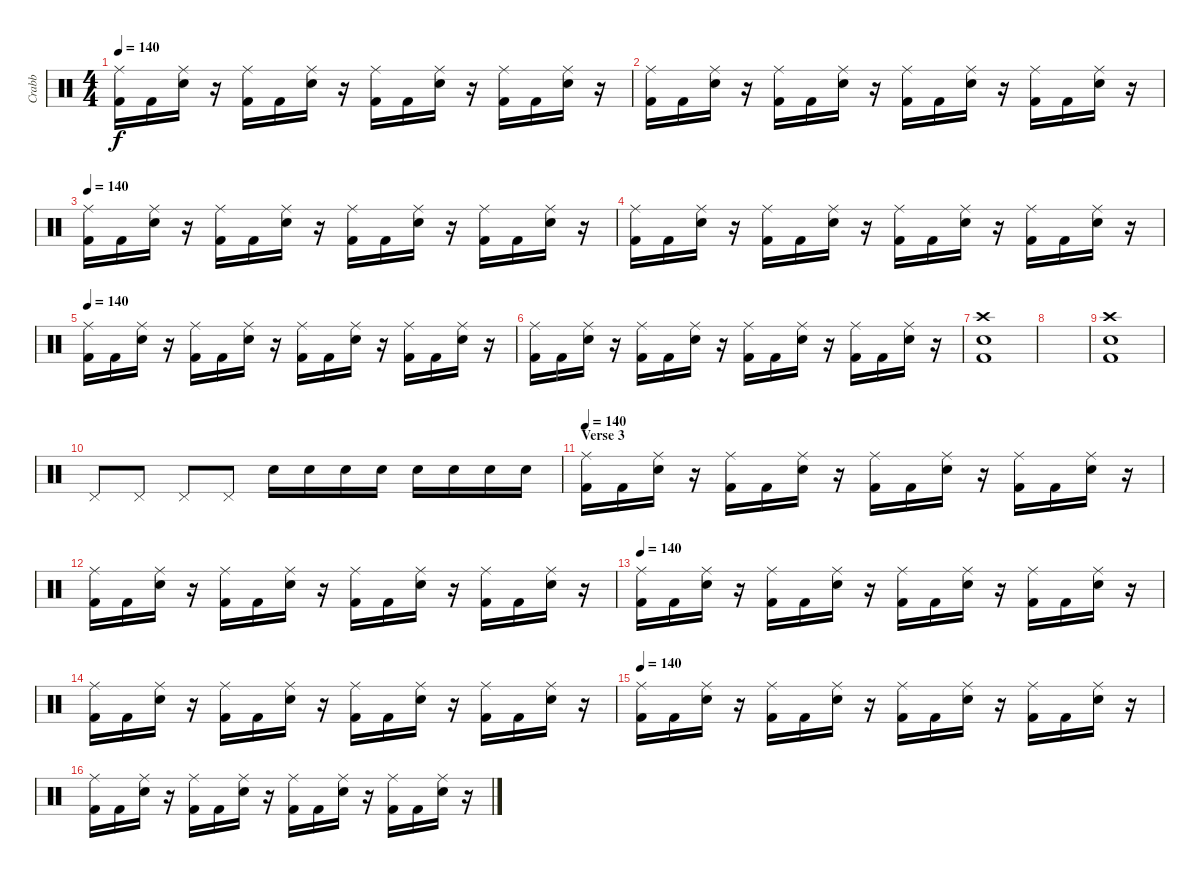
\track ("Crabb" "Crabb") {instrument percussion}
\staff {score}
\articulation defaults
\ts (4 4)
\tempo 140
\clef neutral
\ks c
("Ride (middle)" "Kick (hit) 2").16{dy f} "Kick (hit) 2".16 ("Ride (middle)" "Electric Snare (hit)").16 r.16 ("Ride (middle)" "Kick (hit) 2").16 "Kick (hit) 2".16 ("Ride (middle)" "Electric Snare (hit)").16 r.16 ("Ride (middle)" "Kick (hit) 2").16 "Kick (hit) 2".16 ("Ride (middle)" "Electric Snare (hit)").16 r.16 ("Ride (middle)" "Kick (hit) 2").16 "Kick (hit) 2".16 ("Ride (middle)" "Electric Snare (hit)").16 r.16 |
("Ride (middle)" "Kick (hit) 2").16 "Kick (hit) 2".16 ("Ride (middle)" "Electric Snare (hit)").16 r.16 ("Ride (middle)" "Kick (hit) 2").16 "Kick (hit) 2".16 ("Ride (middle)" "Electric Snare (hit)").16 r.16 ("Ride (middle)" "Kick (hit) 2").16 "Kick (hit) 2".16 ("Ride (middle)" "Electric Snare (hit)").16 r.16 ("Ride (middle)" "Kick (hit) 2").16 "Kick (hit) 2".16 ("Ride (middle)" "Electric Snare (hit)").16 r.16 |
\tempo 140
("Ride (middle)" "Kick (hit) 2").16 "Kick (hit) 2".16 ("Ride (middle)" "Electric Snare (hit)").16 r.16 ("Ride (middle)" "Kick (hit) 2").16 "Kick (hit) 2".16 ("Ride (middle)" "Electric Snare (hit)").16 r.16 ("Ride (middle)" "Kick (hit) 2").16 "Kick (hit) 2".16 ("Ride (middle)" "Electric Snare (hit)").16 r.16 ("Ride (middle)" "Kick (hit) 2").16 "Kick (hit) 2".16 ("Ride (middle)" "Electric Snare (hit)").16 r.16 |
("Ride (middle)" "Kick (hit) 2").16 "Kick (hit) 2".16 ("Ride (middle)" "Electric Snare (hit)").16 r.16 ("Ride (middle)" "Kick (hit) 2").16 "Kick (hit) 2".16 ("Ride (middle)" "Electric Snare (hit)").16 r.16 ("Ride (middle)" "Kick (hit) 2").16 "Kick (hit) 2".16 ("Ride (middle)" "Electric Snare (hit)").16 r.16 ("Ride (middle)" "Kick (hit) 2").16 "Kick (hit) 2".16 ("Ride (middle)" "Electric Snare (hit)").16 r.16 |
\tempo 140
("Ride (middle)" "Kick (hit) 2").16 "Kick (hit) 2".16 ("Ride (middle)" "Electric Snare (hit)").16 r.16 ("Ride (middle)" "Kick (hit) 2").16 "Kick (hit) 2".16 ("Ride (middle)" "Electric Snare (hit)").16 r.16 ("Ride (middle)" "Kick (hit) 2").16 "Kick (hit) 2".16 ("Ride (middle)" "Electric Snare (hit)").16 r.16 ("Ride (middle)" "Kick (hit) 2").16 "Kick (hit) 2".16 ("Ride (middle)" "Electric Snare (hit)").16 r.16 |
("Ride (middle)" "Kick (hit) 2").16 "Kick (hit) 2".16 ("Ride (middle)" "Electric Snare (hit)").16 r.16 ("Ride (middle)" "Kick (hit) 2").16 "Kick (hit) 2".16 ("Ride (middle)" "Electric Snare (hit)").16 r.16 ("Ride (middle)" "Kick (hit) 2").16 "Kick (hit) 2".16 ("Ride (middle)" "Electric Snare (hit)").16 r.16 ("Ride (middle)" "Kick (hit) 2").16 "Kick (hit) 2".16 ("Ride (middle)" "Electric Snare (hit)").16 r.16 |
("Crash high (hit)" "Electric Snare (hit)" "Kick (hit) 2").1 |
|
("Crash high (hit)" "Electric Snare (hit)" "Kick (hit) 2").1 |
"Pedal Hi-Hat (hit)".8 "Pedal Hi-Hat (hit)".8 "Pedal Hi-Hat (hit)".8 "Pedal Hi-Hat (hit)".8 "Electric Snare (hit)".16 "Electric Snare (hit)".16 "Electric Snare (hit)".16 "Electric Snare (hit)".16 "Electric Snare (hit)".16 "Electric Snare (hit)".16 "Electric Snare (hit)".16 "Electric Snare (hit)".16 |
\section ("" "Verse 3")
\tempo 140
("Ride (middle)" "Kick (hit) 2").16 "Kick (hit) 2".16 ("Ride (middle)" "Electric Snare (hit)").16 r.16 ("Ride (middle)" "Kick (hit) 2").16 "Kick (hit) 2".16 ("Ride (middle)" "Electric Snare (hit)").16 r.16 ("Ride (middle)" "Kick (hit) 2").16 "Kick (hit) 2".16 ("Ride (middle)" "Electric Snare (hit)").16 r.16 ("Ride (middle)" "Kick (hit) 2").16 "Kick (hit) 2".16 ("Ride (middle)" "Electric Snare (hit)").16 r.16 |
("Ride (middle)" "Kick (hit) 2").16 "Kick (hit) 2".16 ("Ride (middle)" "Electric Snare (hit)").16 r.16 ("Ride (middle)" "Kick (hit) 2").16 "Kick (hit) 2".16 ("Ride (middle)" "Electric Snare (hit)").16 r.16 ("Ride (middle)" "Kick (hit) 2").16 "Kick (hit) 2".16 ("Ride (middle)" "Electric Snare (hit)").16 r.16 ("Ride (middle)" "Kick (hit) 2").16 "Kick (hit) 2".16 ("Ride (middle)" "Electric Snare (hit)").16 r.16 |
\tempo 140
("Ride (middle)" "Kick (hit) 2").16 "Kick (hit) 2".16 ("Ride (middle)" "Electric Snare (hit)").16 r.16 ("Ride (middle)" "Kick (hit) 2").16 "Kick (hit) 2".16 ("Ride (middle)" "Electric Snare (hit)").16 r.16 ("Ride (middle)" "Kick (hit) 2").16 "Kick (hit) 2".16 ("Ride (middle)" "Electric Snare (hit)").16 r.16 ("Ride (middle)" "Kick (hit) 2").16 "Kick (hit) 2".16 ("Ride (middle)" "Electric Snare (hit)").16 r.16 |
("Ride (middle)" "Kick (hit) 2").16 "Kick (hit) 2".16 ("Ride (middle)" "Electric Snare (hit)").16 r.16 ("Ride (middle)" "Kick (hit) 2").16 "Kick (hit) 2".16 ("Ride (middle)" "Electric Snare (hit)").16 r.16 ("Ride (middle)" "Kick (hit) 2").16 "Kick (hit) 2".16 ("Ride (middle)" "Electric Snare (hit)").16 r.16 ("Ride (middle)" "Kick (hit) 2").16 "Kick (hit) 2".16 ("Ride (middle)" "Electric Snare (hit)").16 r.16 |
\tempo 140
("Ride (middle)" "Kick (hit) 2").16 "Kick (hit) 2".16 ("Ride (middle)" "Electric Snare (hit)").16 r.16 ("Ride (middle)" "Kick (hit) 2").16 "Kick (hit) 2".16 ("Ride (middle)" "Electric Snare (hit)").16 r.16 ("Ride (middle)" "Kick (hit) 2").16 "Kick (hit) 2".16 ("Ride (middle)" "Electric Snare (hit)").16 r.16 ("Ride (middle)" "Kick (hit) 2").16 "Kick (hit) 2".16 ("Ride (middle)" "Electric Snare (hit)").16 r.16 |
("Ride (middle)" "Kick (hit) 2").16 "Kick (hit) 2".16 ("Ride (middle)" "Electric Snare (hit)").16 r.16 ("Ride (middle)" "Kick (hit) 2").16 "Kick (hit) 2".16 ("Ride (middle)" "Electric Snare (hit)").16 r.16 ("Ride (middle)" "Kick (hit) 2").16 "Kick (hit) 2".16 ("Ride (middle)" "Electric Snare (hit)").16 r.16 ("Ride (middle)" "Kick (hit) 2").16 "Kick (hit) 2".16 ("Ride (middle)" "Electric Snare (hit)").16 r.16
